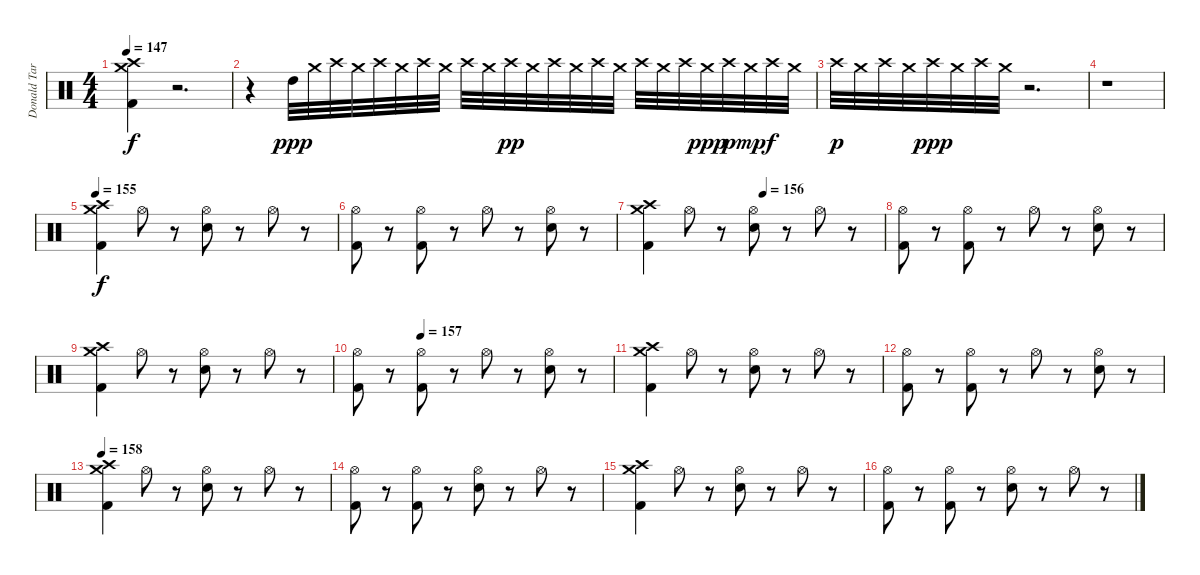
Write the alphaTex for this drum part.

\track ("Donald Tardy (Drums)" "Donald Tar") {instrument percussion}
\staff {score}
\articulation defaults
\ts (4 4)
\tempo 147
\clef neutral
\ks c
("Kick (hit) 2" "Crash medium (hit)" "Crash high (hit)").4{dy f} r.2{d} |
r.4 "High Tom (hit)".32{dy ppp} "Crash medium (hit)".32 "Crash high (hit)".32 "Crash medium (hit)".32 "Crash high (hit)".32 "Crash medium (hit)".32 "Crash high (hit)".32 "Crash medium (hit)".32 "Crash high (hit)".32 "Crash medium (hit)".32 "Crash high (hit)".32{dy pp} "Crash medium (hit)".32 "Crash high (hit)".32 "Crash medium (hit)".32 "Crash high (hit)".32 "Crash medium (hit)".32 "Crash high (hit)".32 "Crash medium (hit)".32 "Crash high (hit)".32 "Crash medium (hit)".32{dy ppp} "Crash high (hit)".32{dy p} "Crash medium (hit)".32{dy mp} "Crash high (hit)".32{dy f} "Crash medium (hit)".32 |
"Crash high (hit)".32{dy p} "Crash medium (hit)".32 "Crash high (hit)".32 "Crash medium (hit)".32 "Crash high (hit)".32{dy ppp} "Crash medium (hit)".32 "Crash high (hit)".32 "Crash medium (hit)".32 r.2{d} |
r.1 |
\tempo 155
("Kick (hit) 2" "Crash medium (hit)" "Crash high (hit)").4{dy f} "Hi-Hat (open)".8 r.8 ("Electric Snare (hit)" "Hi-Hat (open)").8 r.8 "Hi-Hat (open)".8 r.8 |
("Kick (hit) 2" "Hi-Hat (open)").8 r.8 ("Kick (hit) 2" "Hi-Hat (open)").8 r.8 "Hi-Hat (open)".8 r.8 ("Electric Snare (hit)" "Hi-Hat (open)").8 r.8 |
\tempo (156 0.5)
("Kick (hit) 2" "Crash medium (hit)" "Crash high (hit)").4 "Hi-Hat (open)".8 r.8 ("Electric Snare (hit)" "Hi-Hat (open)").8 r.8 "Hi-Hat (open)".8 r.8 |
("Kick (hit) 2" "Hi-Hat (open)").8 r.8 ("Kick (hit) 2" "Hi-Hat (open)").8 r.8 "Hi-Hat (open)".8 r.8 ("Electric Snare (hit)" "Hi-Hat (open)").8 r.8 |
("Kick (hit) 2" "Crash medium (hit)" "Crash high (hit)").4 "Hi-Hat (open)".8 r.8 ("Electric Snare (hit)" "Hi-Hat (open)").8 r.8 "Hi-Hat (open)".8 r.8 |
\tempo (157 0.25)
("Kick (hit) 2" "Hi-Hat (open)").8 r.8 ("Kick (hit) 2" "Hi-Hat (open)").8 r.8 "Hi-Hat (open)".8 r.8 ("Electric Snare (hit)" "Hi-Hat (open)").8 r.8 |
("Kick (hit) 2" "Crash medium (hit)" "Crash high (hit)").4 "Hi-Hat (open)".8 r.8 ("Electric Snare (hit)" "Hi-Hat (open)").8 r.8 "Hi-Hat (open)".8 r.8 |
("Kick (hit) 2" "Hi-Hat (open)").8 r.8 ("Kick (hit) 2" "Hi-Hat (open)").8 r.8 "Hi-Hat (open)".8 r.8 ("Electric Snare (hit)" "Hi-Hat (open)").8 r.8 |
\tempo 158
("Kick (hit) 2" "Crash medium (hit)" "Crash high (hit)").4 "Hi-Hat (open)".8 r.8 ("Electric Snare (hit)" "Hi-Hat (open)").8 r.8 "Hi-Hat (open)".8 r.8 |
("Kick (hit) 2" "Hi-Hat (open)").8 r.8 ("Kick (hit) 2" "Hi-Hat (open)").8 r.8 ("Electric Snare (hit)" "Hi-Hat (open)").8 r.8 "Hi-Hat (open)".8 r.8 |
("Kick (hit) 2" "Crash medium (hit)" "Crash high (hit)").4 "Hi-Hat (open)".8 r.8 ("Electric Snare (hit)" "Hi-Hat (open)").8 r.8 "Hi-Hat (open)".8 r.8 |
("Kick (hit) 2" "Hi-Hat (open)").8 r.8 ("Kick (hit) 2" "Hi-Hat (open)").8 r.8 ("Electric Snare (hit)" "Hi-Hat (open)").8 r.8 "Hi-Hat (open)".8 r.8
